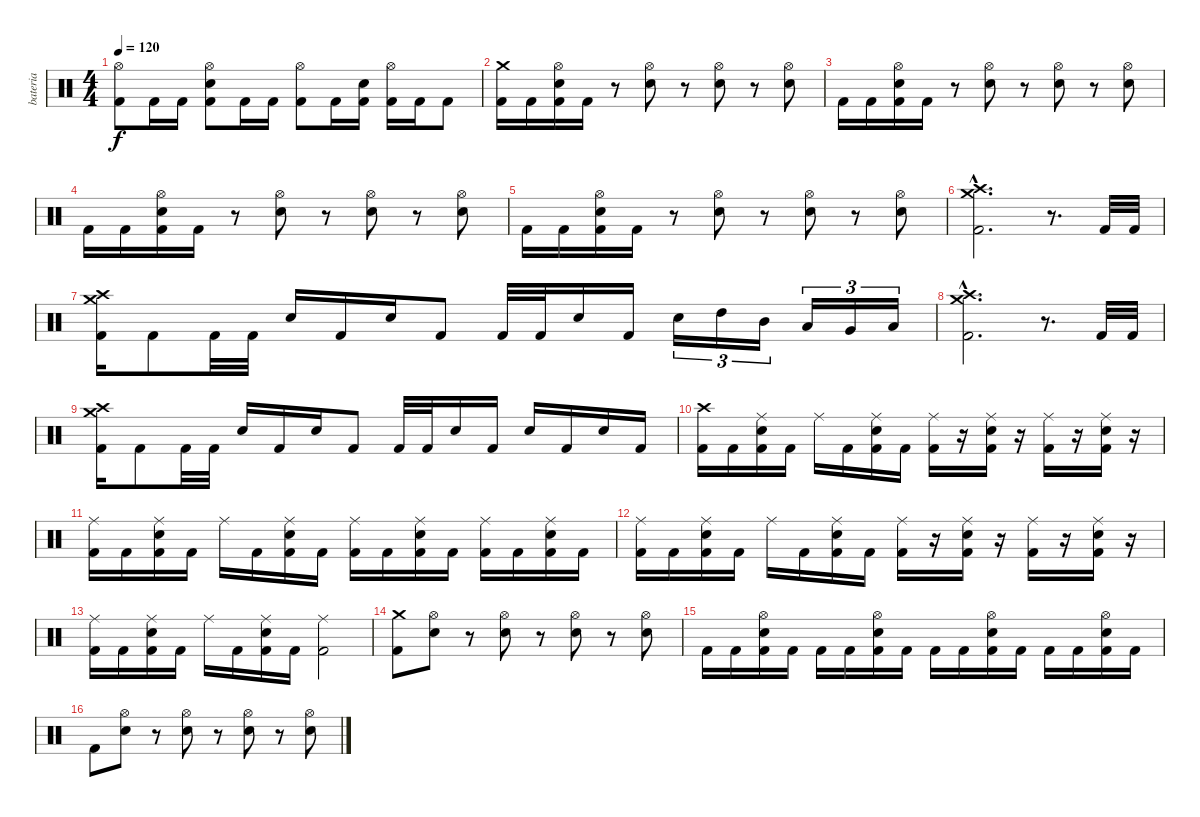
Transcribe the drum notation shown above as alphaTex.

\track ("bateria" "bateria") {instrument percussion}
\staff {score}
\articulation defaults
\ts (4 4)
\tempo 120
\clef neutral
\ks c
("Hi-Hat (open)" "Kick (hit) 2").8{dy f} "Kick (hit) 2".16 "Kick (hit) 2".16 ("Hi-Hat (open)" "Electric Snare (hit)" "Kick (hit) 2").8 "Kick (hit) 2".16 "Kick (hit) 2".16 ("Hi-Hat (open)" "Kick (hit) 2").8 "Kick (hit) 2".16 ("Electric Snare (hit)" "Kick (hit) 2").16 ("Hi-Hat (open)" "Kick (hit) 2").16 "Kick (hit) 2".16 "Kick (hit) 2".8 |
("Crash medium (hit)" "Kick (hit) 2").16 "Kick (hit) 2".16 ("Hi-Hat (open)" "Electric Snare (hit)" "Kick (hit) 2").16 "Kick (hit) 2".16 r.8 ("Hi-Hat (open)" "Electric Snare (hit)").8 r.8 ("Hi-Hat (open)" "Electric Snare (hit)").8 r.8 ("Hi-Hat (open)" "Electric Snare (hit)").8 |
"Kick (hit) 2".16 "Kick (hit) 2".16 ("Hi-Hat (open)" "Electric Snare (hit)" "Kick (hit) 2").16 "Kick (hit) 2".16 r.8 ("Hi-Hat (open)" "Electric Snare (hit)").8 r.8 ("Hi-Hat (open)" "Electric Snare (hit)").8 r.8 ("Hi-Hat (open)" "Electric Snare (hit)").8 |
"Kick (hit) 2".16 "Kick (hit) 2".16 ("Hi-Hat (open)" "Electric Snare (hit)" "Kick (hit) 2").16 "Kick (hit) 2".16 r.8 ("Hi-Hat (open)" "Electric Snare (hit)").8 r.8 ("Hi-Hat (open)" "Electric Snare (hit)").8 r.8 ("Hi-Hat (open)" "Electric Snare (hit)").8 |
"Kick (hit) 2".16 "Kick (hit) 2".16 ("Hi-Hat (open)" "Electric Snare (hit)" "Kick (hit) 2").16 "Kick (hit) 2".16 r.8 ("Hi-Hat (open)" "Electric Snare (hit)").8 r.8 ("Hi-Hat (open)" "Electric Snare (hit)").8 r.8 ("Hi-Hat (open)" "Electric Snare (hit)").8 |
("Crash medium (hit)"{hac} "Crash high (hit)"{hac} "Kick (hit) 2"{hac}).2{d} r.8{d} "Kick (hit) 2".32 "Kick (hit) 2".32 |
("Crash medium (hit)" "Crash high (hit)" "Kick (hit) 2").16 "Kick (hit) 2".8 "Kick (hit) 2".32 "Kick (hit) 2".32 "Electric Snare (hit)".16 "Kick (hit) 2".16 "Electric Snare (hit)".16 "Kick (hit) 2".8 "Kick (hit) 2".32 "Kick (hit) 2".32 "Electric Snare (hit)".16 "Kick (hit) 2".16 "Electric Snare (hit)".16{tu (3 2)} "High Tom (hit)".16{tu (3 2)} "Mid Tom (hit)".16{tu (3 2)} "Low Tom (hit)".16{tu (3 2)} "Very Low Tom (hit)".16{tu (3 2)} "Low Floor Tom (hit)".16{tu (3 2)} |
("Crash medium (hit)"{hac} "Crash high (hit)"{hac} "Kick (hit) 2"{hac}).2{d} r.8{d} "Kick (hit) 2".32 "Kick (hit) 2".32 |
("Crash medium (hit)" "Crash high (hit)" "Kick (hit) 2").16 "Kick (hit) 2".8 "Kick (hit) 2".32 "Kick (hit) 2".32 "Electric Snare (hit)".16 "Kick (hit) 2".16 "Electric Snare (hit)".16 "Kick (hit) 2".8 "Kick (hit) 2".32 "Kick (hit) 2".32 "Electric Snare (hit)".16 "Kick (hit) 2".16 "Electric Snare (hit)".16 "Kick (hit) 2".16 "Electric Snare (hit)".16 "Kick (hit) 2".16 |
("Crash high (hit)" "Kick (hit) 2").16 "Kick (hit) 2".16 ("Ride (middle)" "Electric Snare (hit)" "Kick (hit) 2").16 "Kick (hit) 2".16 "Ride (middle)".16 "Kick (hit) 2".16 ("Ride (middle)" "Electric Snare (hit)" "Kick (hit) 2").16 "Kick (hit) 2".16 ("Ride (middle)" "Kick (hit) 2").16 r.16 ("Ride (middle)" "Electric Snare (hit)" "Kick (hit) 2").16 r.16 ("Ride (middle)" "Kick (hit) 2").16 r.16 ("Ride (middle)" "Electric Snare (hit)" "Kick (hit) 2").16 r.16 |
("Ride (middle)" "Kick (hit) 2").16 "Kick (hit) 2".16 ("Ride (middle)" "Electric Snare (hit)" "Kick (hit) 2").16 "Kick (hit) 2".16 "Ride (middle)".16 "Kick (hit) 2".16 ("Ride (middle)" "Electric Snare (hit)" "Kick (hit) 2").16 "Kick (hit) 2".16 ("Ride (middle)" "Kick (hit) 2").16 "Kick (hit) 2".16 ("Ride (middle)" "Electric Snare (hit)" "Kick (hit) 2").16 "Kick (hit) 2".16 ("Ride (middle)" "Kick (hit) 2").16 "Kick (hit) 2".16 ("Ride (middle)" "Electric Snare (hit)" "Kick (hit) 2").16 "Kick (hit) 2".16 |
("Ride (middle)" "Kick (hit) 2").16 "Kick (hit) 2".16 ("Ride (middle)" "Electric Snare (hit)" "Kick (hit) 2").16 "Kick (hit) 2".16 "Ride (middle)".16 "Kick (hit) 2".16 ("Ride (middle)" "Electric Snare (hit)" "Kick (hit) 2").16 "Kick (hit) 2".16 ("Ride (middle)" "Kick (hit) 2").16 r.16 ("Ride (middle)" "Electric Snare (hit)" "Kick (hit) 2").16 r.16 ("Ride (middle)" "Kick (hit) 2").16 r.16 ("Ride (middle)" "Electric Snare (hit)" "Kick (hit) 2").16 r.16 |
("Ride (middle)" "Kick (hit) 2").16 "Kick (hit) 2".16 ("Ride (middle)" "Electric Snare (hit)" "Kick (hit) 2").16 "Kick (hit) 2".16 "Ride (middle)".16 "Kick (hit) 2".16 ("Ride (middle)" "Electric Snare (hit)" "Kick (hit) 2").16 "Kick (hit) 2".16 ("Ride (middle)" "Kick (hit) 2").2 |
("Crash medium (hit)" "Kick (hit) 2").8 ("Hi-Hat (open)" "Electric Snare (hit)").8 r.8 ("Hi-Hat (open)" "Electric Snare (hit)").8 r.8 ("Hi-Hat (open)" "Electric Snare (hit)").8 r.8 ("Hi-Hat (open)" "Electric Snare (hit)").8 |
"Kick (hit) 2".16 "Kick (hit) 2".16 ("Hi-Hat (open)" "Electric Snare (hit)" "Kick (hit) 2").16 "Kick (hit) 2".16 "Kick (hit) 2".16 "Kick (hit) 2".16 ("Hi-Hat (open)" "Electric Snare (hit)" "Kick (hit) 2").16 "Kick (hit) 2".16 "Kick (hit) 2".16 "Kick (hit) 2".16 ("Hi-Hat (open)" "Electric Snare (hit)" "Kick (hit) 2").16 "Kick (hit) 2".16 "Kick (hit) 2".16 "Kick (hit) 2".16 ("Hi-Hat (open)" "Electric Snare (hit)" "Kick (hit) 2").16 "Kick (hit) 2".16 |
"Kick (hit) 2".8 ("Hi-Hat (open)" "Electric Snare (hit)").8 r.8 ("Hi-Hat (open)" "Electric Snare (hit)").8 r.8 ("Hi-Hat (open)" "Electric Snare (hit)").8 r.8 ("Hi-Hat (open)" "Electric Snare (hit)").8
